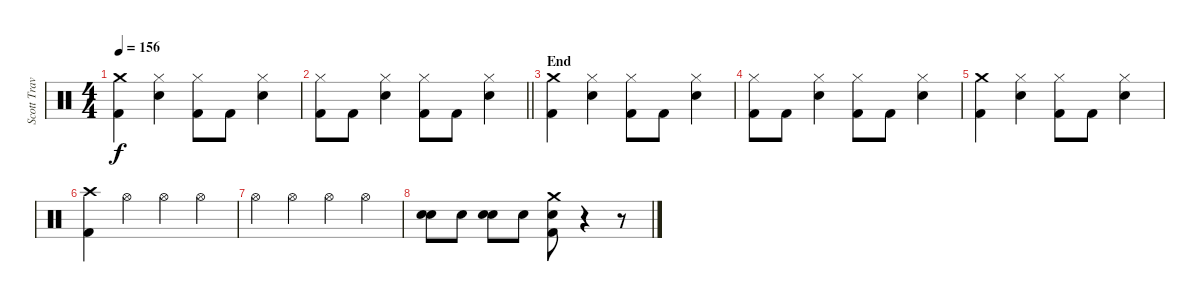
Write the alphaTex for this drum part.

\track ("Scott Travis" "Scott Trav") {instrument percussion}
\staff {score}
\articulation defaults
\ts (4 4)
\tempo 156
\clef neutral
\ks c
("Crash medium (hit)" "Kick (hit) 2").4{dy f} ("Hi-Hat (closed)" "Snare (hit) 2").4 ("Hi-Hat (closed)" "Kick (hit) 2").8 "Kick (hit) 2".8 ("Hi-Hat (closed)" "Snare (hit) 2").4 |
\barLineRight lightlight
("Hi-Hat (closed)" "Kick (hit) 2").8 "Kick (hit) 2".8 ("Snare (hit) 2" "Hi-Hat (closed)").4 ("Kick (hit) 2" "Hi-Hat (closed)").8 "Kick (hit) 2".8 ("Hi-Hat (closed)" "Snare (hit) 2").4 |
\section ("" "End")
("Crash medium (hit)" "Kick (hit) 2").4 ("Hi-Hat (closed)" "Snare (hit) 2").4 ("Hi-Hat (closed)" "Kick (hit) 2").8 "Kick (hit) 2".8 ("Hi-Hat (closed)" "Snare (hit) 2").4 |
("Hi-Hat (closed)" "Kick (hit) 2").8 "Kick (hit) 2".8 ("Snare (hit) 2" "Hi-Hat (closed)").4 ("Kick (hit) 2" "Hi-Hat (closed)").8 "Kick (hit) 2".8 ("Hi-Hat (closed)" "Snare (hit) 2").4 |
("Kick (hit) 2" "Crash medium (hit)").4 ("Snare (hit) 2" "Hi-Hat (closed)").4 ("Hi-Hat (closed)" "Kick (hit) 2").8 "Kick (hit) 2".8 ("Snare (hit) 2" "Hi-Hat (closed)").4 |
("Kick (hit) 2" "Crash high (hit)").4 "Hi-Hat (open)".4 "Hi-Hat (open)".4 "Hi-Hat (open)".4 |
"Hi-Hat (open)".4 "Hi-Hat (open)".4 "Hi-Hat (open)".4 "Hi-Hat (open)".4 |
("Snare (hit) 2" "Snare (hit) 2").8 "Snare (hit) 2".8 ("Snare (hit) 2" "Snare (hit) 2").8 "Snare (hit) 2".8 ("Crash medium (hit)" "Kick (hit) 2" "Snare (hit) 2").8 r.4 r.8
